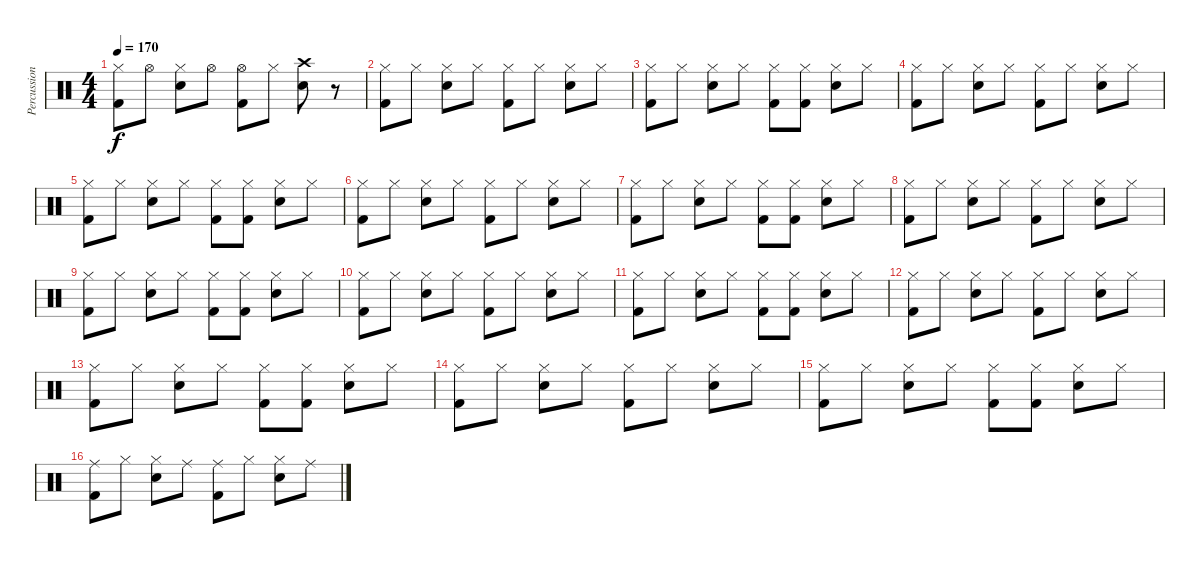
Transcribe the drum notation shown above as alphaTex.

\track ("Percussion" "Percussion") {instrument percussion}
\staff {score}
\articulation defaults
\ts (4 4)
\tempo 170
\clef neutral
\ks c
("Hi-Hat (closed)" "Kick (hit) 2").8{dy f} "Hi-Hat (open)".8 ("Hi-Hat (closed)" "Snare (hit) 2").8 "Hi-Hat (open)".8 ("Hi-Hat (open)" "Kick (hit) 2").8 "Hi-Hat (closed)".8 ("Crash high (hit)" "Snare (hit) 2").8 r.8 |
("Hi-Hat (closed)" "Kick (hit) 2").8 "Hi-Hat (closed)".8 ("Hi-Hat (closed)" "Snare (hit) 2").8 "Hi-Hat (closed)".8 ("Hi-Hat (closed)" "Kick (hit) 2").8 "Hi-Hat (closed)".8 ("Hi-Hat (closed)" "Snare (hit) 2").8 "Hi-Hat (closed)".8 |
("Hi-Hat (closed)" "Kick (hit) 2").8 "Hi-Hat (closed)".8 ("Hi-Hat (closed)" "Snare (hit) 2").8 "Hi-Hat (closed)".8 ("Hi-Hat (closed)" "Kick (hit) 2").8 ("Hi-Hat (closed)" "Kick (hit) 2").8 ("Hi-Hat (closed)" "Snare (hit) 2").8 "Hi-Hat (closed)".8 |
("Hi-Hat (closed)" "Kick (hit) 2").8 "Hi-Hat (closed)".8 ("Hi-Hat (closed)" "Snare (hit) 2").8 "Hi-Hat (closed)".8 ("Hi-Hat (closed)" "Kick (hit) 2").8 "Hi-Hat (closed)".8 ("Hi-Hat (closed)" "Snare (hit) 2").8 "Hi-Hat (closed)".8 |
("Hi-Hat (closed)" "Kick (hit) 2").8 "Hi-Hat (closed)".8 ("Hi-Hat (closed)" "Snare (hit) 2").8 "Hi-Hat (closed)".8 ("Hi-Hat (closed)" "Kick (hit) 2").8 ("Hi-Hat (closed)" "Kick (hit) 2").8 ("Hi-Hat (closed)" "Snare (hit) 2").8 "Hi-Hat (closed)".8 |
("Hi-Hat (closed)" "Kick (hit) 2").8 "Hi-Hat (closed)".8 ("Hi-Hat (closed)" "Snare (hit) 2").8 "Hi-Hat (closed)".8 ("Hi-Hat (closed)" "Kick (hit) 2").8 "Hi-Hat (closed)".8 ("Hi-Hat (closed)" "Snare (hit) 2").8 "Hi-Hat (closed)".8 |
("Hi-Hat (closed)" "Kick (hit) 2").8 "Hi-Hat (closed)".8 ("Hi-Hat (closed)" "Snare (hit) 2").8 "Hi-Hat (closed)".8 ("Hi-Hat (closed)" "Kick (hit) 2").8 ("Hi-Hat (closed)" "Kick (hit) 2").8 ("Hi-Hat (closed)" "Snare (hit) 2").8 "Hi-Hat (closed)".8 |
("Hi-Hat (closed)" "Kick (hit) 2").8 "Hi-Hat (closed)".8 ("Hi-Hat (closed)" "Snare (hit) 2").8 "Hi-Hat (closed)".8 ("Hi-Hat (closed)" "Kick (hit) 2").8 "Hi-Hat (closed)".8 ("Hi-Hat (closed)" "Snare (hit) 2").8 "Hi-Hat (closed)".8 |
("Hi-Hat (closed)" "Kick (hit) 2").8 "Hi-Hat (closed)".8 ("Hi-Hat (closed)" "Snare (hit) 2").8 "Hi-Hat (closed)".8 ("Hi-Hat (closed)" "Kick (hit) 2").8 ("Hi-Hat (closed)" "Kick (hit) 2").8 ("Hi-Hat (closed)" "Snare (hit) 2").8 "Hi-Hat (closed)".8 |
("Hi-Hat (closed)" "Kick (hit) 2").8 "Hi-Hat (closed)".8 ("Hi-Hat (closed)" "Snare (hit) 2").8 "Hi-Hat (closed)".8 ("Hi-Hat (closed)" "Kick (hit) 2").8 "Hi-Hat (closed)".8 ("Hi-Hat (closed)" "Snare (hit) 2").8 "Hi-Hat (closed)".8 |
("Hi-Hat (closed)" "Kick (hit) 2").8 "Hi-Hat (closed)".8 ("Hi-Hat (closed)" "Snare (hit) 2").8 "Hi-Hat (closed)".8 ("Hi-Hat (closed)" "Kick (hit) 2").8 ("Hi-Hat (closed)" "Kick (hit) 2").8 ("Hi-Hat (closed)" "Snare (hit) 2").8 "Hi-Hat (closed)".8 |
("Hi-Hat (closed)" "Kick (hit) 2").8 "Hi-Hat (closed)".8 ("Hi-Hat (closed)" "Snare (hit) 2").8 "Hi-Hat (closed)".8 ("Hi-Hat (closed)" "Kick (hit) 2").8 "Hi-Hat (closed)".8 ("Hi-Hat (closed)" "Snare (hit) 2").8 "Hi-Hat (closed)".8 |
("Hi-Hat (closed)" "Kick (hit) 2").8 "Hi-Hat (closed)".8 ("Hi-Hat (closed)" "Snare (hit) 2").8 "Hi-Hat (closed)".8 ("Hi-Hat (closed)" "Kick (hit) 2").8 ("Hi-Hat (closed)" "Kick (hit) 2").8 ("Hi-Hat (closed)" "Snare (hit) 2").8 "Hi-Hat (closed)".8 |
("Hi-Hat (closed)" "Kick (hit) 2").8 "Hi-Hat (closed)".8 ("Hi-Hat (closed)" "Snare (hit) 2").8 "Hi-Hat (closed)".8 ("Hi-Hat (closed)" "Kick (hit) 2").8 "Hi-Hat (closed)".8 ("Hi-Hat (closed)" "Snare (hit) 2").8 "Hi-Hat (closed)".8 |
("Hi-Hat (closed)" "Kick (hit) 2").8 "Hi-Hat (closed)".8 ("Hi-Hat (closed)" "Snare (hit) 2").8 "Hi-Hat (closed)".8 ("Hi-Hat (closed)" "Kick (hit) 2").8 ("Hi-Hat (closed)" "Kick (hit) 2").8 ("Hi-Hat (closed)" "Snare (hit) 2").8 "Hi-Hat (closed)".8 |
("Ride (middle)" "Kick (hit) 2").8 "Hi-Hat (closed)".8 ("Hi-Hat (closed)" "Snare (hit) 2").8 "Ride (middle)".8 ("Ride (middle)" "Kick (hit) 2").8 "Hi-Hat (closed)".8 ("Hi-Hat (closed)" "Snare (hit) 2").8 "Ride (middle)".8
